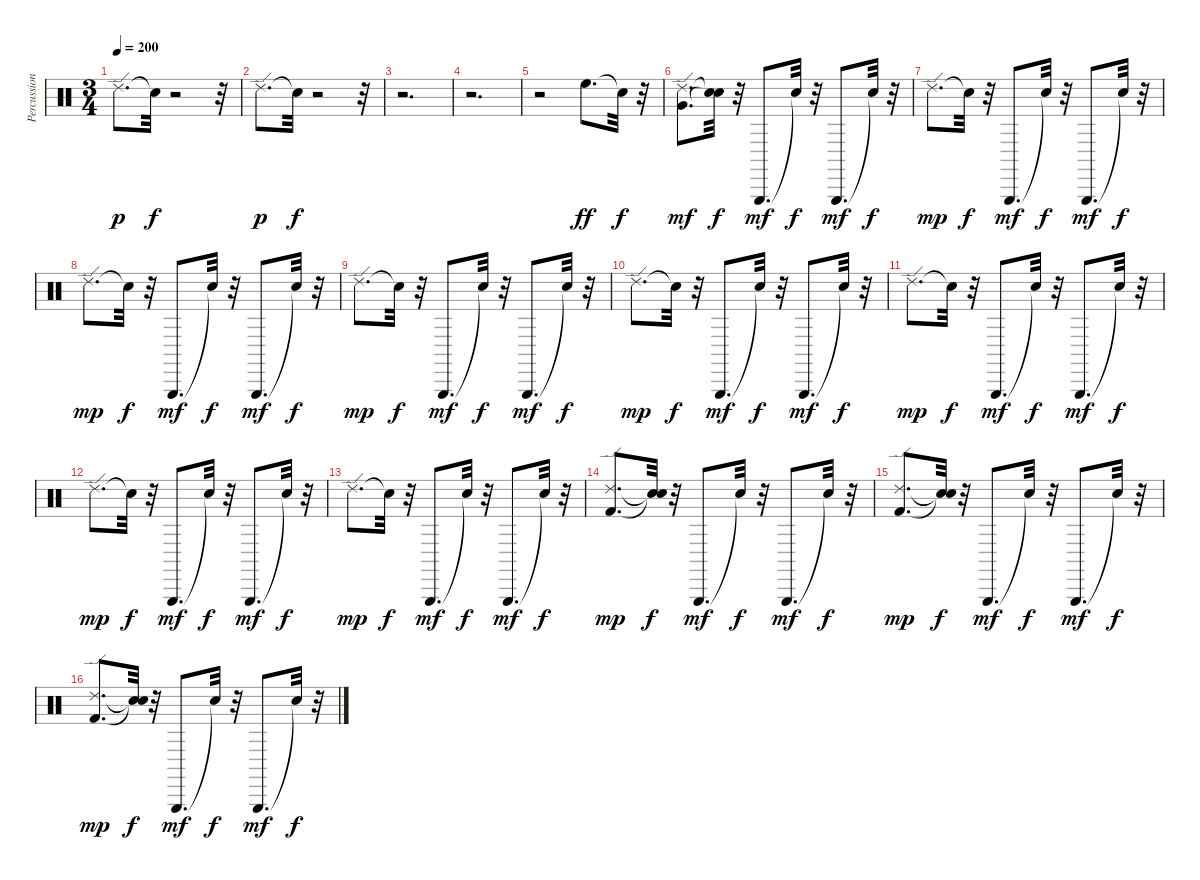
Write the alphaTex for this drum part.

\track ("Percussion." "Percussion") {instrument percussion}
\staff {score}
\articulation defaults
\ts (3 4)
\tempo 200
\clef neutral
\ks c "Ride (edge) 2".8{d dy p} "Snare (hit)"{t}.32{dy f}
r.2 r.32 |
"Ride (edge) 2".8{d dy p} "Snare (hit)"{t}.32{dy f} r.2 r.32 |
r.2{d} |
r.2{d} |
r.2 "High Floor Tom (hit)".8{d dy ff} "Snare (hit)"{t}.32{dy f} r.32 |
("Ride (edge) 2" "Very Low Tom (hit)").8{d dy mf} ("Snare (hit)"{t} "Snare (hit)"{t}).32{dy f} r.32 "Triangle (hit)".8{d dy mf} "Snare (hit)"{t}.32{dy f} r.32 "Triangle (hit)".8{d dy mf} "Snare (hit)"{t}.32{dy f} r.32 |
"Ride (edge) 2".8{d dy mp} "Snare (hit)"{t}.32{dy f} r.32 "Triangle (hit)".8{d dy mf} "Snare (hit)"{t}.32{dy f} r.32 "Triangle (hit)".8{d dy mf} "Snare (hit)"{t}.32{dy f} r.32 |
"Ride (edge) 2".8{d dy mp} "Snare (hit)"{t}.32{dy f} r.32 "Triangle (hit)".8{d dy mf} "Snare (hit)"{t}.32{dy f} r.32 "Triangle (hit)".8{d dy mf} "Snare (hit)"{t}.32{dy f} r.32 |
"Ride (edge) 2".8{d dy mp} "Snare (hit)"{t}.32{dy f} r.32 "Triangle (hit)".8{d dy mf} "Snare (hit)"{t}.32{dy f} r.32 "Triangle (hit)".8{d dy mf} "Snare (hit)"{t}.32{dy f} r.32 |
"Ride (edge) 2".8{d dy mp} "Snare (hit)"{t}.32{dy f} r.32 "Triangle (hit)".8{d dy mf} "Snare (hit)"{t}.32{dy f} r.32 "Triangle (hit)".8{d dy mf} "Snare (hit)"{t}.32{dy f} r.32 |
"Ride (edge) 2".8{d dy mp} "Snare (hit)"{t}.32{dy f} r.32 "Triangle (hit)".8{d dy mf} "Snare (hit)"{t}.32{dy f} r.32 "Triangle (hit)".8{d dy mf} "Snare (hit)"{t}.32{dy f} r.32 |
"Ride (edge) 2".8{d dy mp} "Snare (hit)"{t}.32{dy f} r.32 "Triangle (hit)".8{d dy mf} "Snare (hit)"{t}.32{dy f} r.32 "Triangle (hit)".8{d dy mf} "Snare (hit)"{t}.32{dy f} r.32 |
"Ride (edge) 2".8{d dy mp} "Snare (hit)"{t}.32{dy f} r.32 "Triangle (hit)".8{d dy mf} "Snare (hit)"{t}.32{dy f} r.32 "Triangle (hit)".8{d dy mf} "Snare (hit)"{t}.32{dy f} r.32 |
("Kick (hit) 2" "Ride (edge) 2").8{d dy mp} ("Snare (hit)"{t} "Snare (hit)"{t}).32{dy f} r.32 "Triangle (hit)".8{d dy mf} "Snare (hit)"{t}.32{dy f} r.32 "Triangle (hit)".8{d dy mf} "Snare (hit)"{t}.32{dy f} r.32 |
("Kick (hit) 2" "Ride (edge) 2").8{d dy mp} ("Snare (hit)"{t} "Snare (hit)"{t}).32{dy f} r.32 "Triangle (hit)".8{d dy mf} "Snare (hit)"{t}.32{dy f} r.32 "Triangle (hit)".8{d dy mf} "Snare (hit)"{t}.32{dy f} r.32 |
("Kick (hit) 2" "Ride (edge) 2").8{d dy mp} ("Snare (hit)"{t} "Snare (hit)"{t}).32{dy f} r.32 "Triangle (hit)".8{d dy mf} "Snare (hit)"{t}.32{dy f} r.32 "Triangle (hit)".8{d dy mf} "Snare (hit)"{t}.32{dy f} r.32
